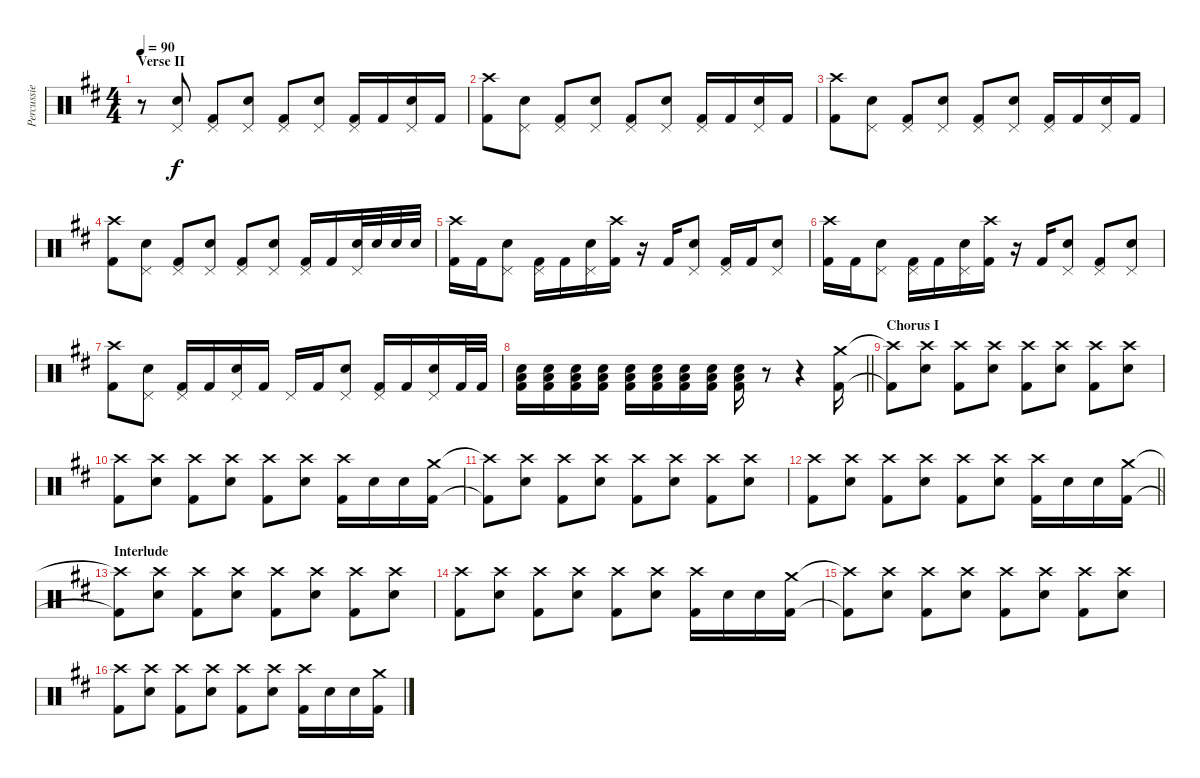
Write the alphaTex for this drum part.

\track ("Percussie" "Percussie") {instrument percussion}
\staff {score}
\articulation defaults
\ts (4 4)
\section ("" "Verse II")
\tempo 90
\clef neutral
\ks bminor
r.8{dy f} ("Pedal Hi-Hat (hit)" "Electric Snare (hit)").8 ("Pedal Hi-Hat (hit)" "Kick (hit) 2").8 ("Pedal Hi-Hat (hit)" "Electric Snare (hit)").8 ("Pedal Hi-Hat (hit)" "Kick (hit) 2").8 ("Pedal Hi-Hat (hit)" "Electric Snare (hit)").8 ("Pedal Hi-Hat (hit)" "Kick (hit) 2").16 "Kick (hit) 2".16 ("Pedal Hi-Hat (hit)" "Electric Snare (hit)").16 "Kick (hit) 2".16 |
("Crash high (hit)" "Kick (hit) 2").8 ("Pedal Hi-Hat (hit)" "Electric Snare (hit)").8 ("Pedal Hi-Hat (hit)" "Kick (hit) 2").8 ("Pedal Hi-Hat (hit)" "Electric Snare (hit)").8 ("Pedal Hi-Hat (hit)" "Kick (hit) 2").8 ("Pedal Hi-Hat (hit)" "Electric Snare (hit)").8 ("Pedal Hi-Hat (hit)" "Kick (hit) 2").16 "Kick (hit) 2".16 ("Pedal Hi-Hat (hit)" "Electric Snare (hit)").16 "Kick (hit) 2".16 |
("Crash high (hit)" "Kick (hit) 2").8 ("Pedal Hi-Hat (hit)" "Electric Snare (hit)").8 ("Pedal Hi-Hat (hit)" "Kick (hit) 2").8 ("Pedal Hi-Hat (hit)" "Electric Snare (hit)").8 ("Pedal Hi-Hat (hit)" "Kick (hit) 2").8 ("Pedal Hi-Hat (hit)" "Electric Snare (hit)").8 ("Pedal Hi-Hat (hit)" "Kick (hit) 2").16 "Kick (hit) 2".16 ("Pedal Hi-Hat (hit)" "Electric Snare (hit)").16 "Kick (hit) 2".16 |
("Crash high (hit)" "Kick (hit) 2").8 ("Pedal Hi-Hat (hit)" "Electric Snare (hit)").8 ("Pedal Hi-Hat (hit)" "Kick (hit) 2").8 ("Pedal Hi-Hat (hit)" "Electric Snare (hit)").8 ("Pedal Hi-Hat (hit)" "Kick (hit) 2").8 ("Pedal Hi-Hat (hit)" "Electric Snare (hit)").8 ("Pedal Hi-Hat (hit)" "Kick (hit) 2").16 "Kick (hit) 2".16 ("Pedal Hi-Hat (hit)" "Electric Snare (hit)").32 "Electric Snare (hit)".32 "Electric Snare (hit)".32 "Electric Snare (hit)".32 |
("Crash high (hit)" "Kick (hit) 2").16 "Kick (hit) 2".16 ("Pedal Hi-Hat (hit)" "Electric Snare (hit)").8 ("Pedal Hi-Hat (hit)" "Kick (hit) 2").16 "Kick (hit) 2".16 ("Pedal Hi-Hat (hit)" "Electric Snare (hit)").16 ("Crash high (hit)" "Kick (hit) 2").16 r.16 "Kick (hit) 2".16 ("Pedal Hi-Hat (hit)" "Electric Snare (hit)").8 ("Pedal Hi-Hat (hit)" "Kick (hit) 2").16 "Kick (hit) 2".16 ("Pedal Hi-Hat (hit)" "Electric Snare (hit)").8 |
("Crash high (hit)" "Kick (hit) 2").16 "Kick (hit) 2".16 ("Pedal Hi-Hat (hit)" "Electric Snare (hit)").8 ("Pedal Hi-Hat (hit)" "Kick (hit) 2").16 "Kick (hit) 2".16 ("Pedal Hi-Hat (hit)" "Electric Snare (hit)").16 ("Crash high (hit)" "Kick (hit) 2").16 r.16 "Kick (hit) 2".16 ("Pedal Hi-Hat (hit)" "Electric Snare (hit)").8 ("Pedal Hi-Hat (hit)" "Kick (hit) 2").8 ("Pedal Hi-Hat (hit)" "Electric Snare (hit)").8 |
("Crash high (hit)" "Kick (hit) 2").8 ("Pedal Hi-Hat (hit)" "Electric Snare (hit)").8 ("Pedal Hi-Hat (hit)" "Kick (hit) 2").16 "Kick (hit) 2".16 ("Pedal Hi-Hat (hit)" "Electric Snare (hit)").16 "Kick (hit) 2".16 "Pedal Hi-Hat (hit)".16 "Kick (hit) 2".16 ("Pedal Hi-Hat (hit)" "Electric Snare (hit)").8 ("Pedal Hi-Hat (hit)" "Kick (hit) 2").16 "Kick (hit) 2".16 ("Pedal Hi-Hat (hit)" "Electric Snare (hit)").16 "Kick (hit) 2".32 "Kick (hit) 2".32 |
\barLineRight lightlight
("Electric Snare (hit)" "Low Floor Tom (hit)" "Kick (hit) 2").16 ("Electric Snare (hit)" "Low Floor Tom (hit)" "Kick (hit) 2").16 ("Electric Snare (hit)" "Low Floor Tom (hit)" "Kick (hit) 2").16 ("Electric Snare (hit)" "Low Floor Tom (hit)" "Kick (hit) 2").16 ("Electric Snare (hit)" "Low Floor Tom (hit)" "Kick (hit) 2").16 ("Electric Snare (hit)" "Low Floor Tom (hit)" "Kick (hit) 2").16 ("Electric Snare (hit)" "Low Floor Tom (hit)" "Kick (hit) 2").16 ("Electric Snare (hit)" "Low Floor Tom (hit)" "Kick (hit) 2").16 ("Electric Snare (hit)" "Low Floor Tom (hit)" "Kick (hit) 2").16 r.8 r.4 ("Crash medium (hit)" "Kick (hit) 2").16 |
\section ("" "Chorus I")
("Crash high (hit)"{t} "Kick (hit) 2"{t}).8 ("Crash high (hit)" "Electric Snare (hit)").8 ("Crash high (hit)" "Kick (hit) 2").8 ("Crash high (hit)" "Electric Snare (hit)").8 ("Crash high (hit)" "Kick (hit) 2").8 ("Crash high (hit)" "Electric Snare (hit)").8 ("Crash high (hit)" "Kick (hit) 2").8 ("Crash high (hit)" "Electric Snare (hit)").8 |
("Crash high (hit)" "Kick (hit) 2").8 ("Crash high (hit)" "Electric Snare (hit)").8 ("Crash high (hit)" "Kick (hit) 2").8 ("Crash high (hit)" "Electric Snare (hit)").8 ("Crash high (hit)" "Kick (hit) 2").8 ("Crash high (hit)" "Electric Snare (hit)").8 ("Crash high (hit)" "Kick (hit) 2").16 "Electric Snare (hit)".16 "Electric Snare (hit)".16 ("Crash medium (hit)" "Kick (hit) 2").16 |
("Crash high (hit)"{t} "Kick (hit) 2"{t}).8 ("Crash high (hit)" "Electric Snare (hit)").8 ("Crash high (hit)" "Kick (hit) 2").8 ("Crash high (hit)" "Electric Snare (hit)").8 ("Crash high (hit)" "Kick (hit) 2").8 ("Crash high (hit)" "Electric Snare (hit)").8 ("Crash high (hit)" "Kick (hit) 2").8 ("Crash high (hit)" "Electric Snare (hit)").8 |
\barLineRight lightlight
("Crash high (hit)" "Kick (hit) 2").8 ("Crash high (hit)" "Electric Snare (hit)").8 ("Crash high (hit)" "Kick (hit) 2").8 ("Crash high (hit)" "Electric Snare (hit)").8 ("Crash high (hit)" "Kick (hit) 2").8 ("Crash high (hit)" "Electric Snare (hit)").8 ("Crash high (hit)" "Kick (hit) 2").16 "Electric Snare (hit)".16 "Electric Snare (hit)".16 ("Crash medium (hit)" "Kick (hit) 2").16 |
\section ("" "Interlude")
("Crash high (hit)"{t} "Kick (hit) 2"{t}).8 ("Crash high (hit)" "Electric Snare (hit)").8 ("Crash high (hit)" "Kick (hit) 2").8 ("Crash high (hit)" "Electric Snare (hit)").8 ("Crash high (hit)" "Kick (hit) 2").8 ("Crash high (hit)" "Electric Snare (hit)").8 ("Crash high (hit)" "Kick (hit) 2").8 ("Crash high (hit)" "Electric Snare (hit)").8 |
("Crash high (hit)" "Kick (hit) 2").8 ("Crash high (hit)" "Electric Snare (hit)").8 ("Crash high (hit)" "Kick (hit) 2").8 ("Crash high (hit)" "Electric Snare (hit)").8 ("Crash high (hit)" "Kick (hit) 2").8 ("Crash high (hit)" "Electric Snare (hit)").8 ("Crash high (hit)" "Kick (hit) 2").16 "Electric Snare (hit)".16 "Electric Snare (hit)".16 ("Crash medium (hit)" "Kick (hit) 2").16 |
("Crash high (hit)"{t} "Kick (hit) 2"{t}).8 ("Crash high (hit)" "Electric Snare (hit)").8 ("Crash high (hit)" "Kick (hit) 2").8 ("Crash high (hit)" "Electric Snare (hit)").8 ("Crash high (hit)" "Kick (hit) 2").8 ("Crash high (hit)" "Electric Snare (hit)").8 ("Crash high (hit)" "Kick (hit) 2").8 ("Crash high (hit)" "Electric Snare (hit)").8 |
("Crash high (hit)" "Kick (hit) 2").8 ("Crash high (hit)" "Electric Snare (hit)").8 ("Crash high (hit)" "Kick (hit) 2").8 ("Crash high (hit)" "Electric Snare (hit)").8 ("Crash high (hit)" "Kick (hit) 2").8 ("Crash high (hit)" "Electric Snare (hit)").8 ("Crash high (hit)" "Kick (hit) 2").16 "Electric Snare (hit)".16 "Electric Snare (hit)".16 ("Crash medium (hit)" "Kick (hit) 2").16
